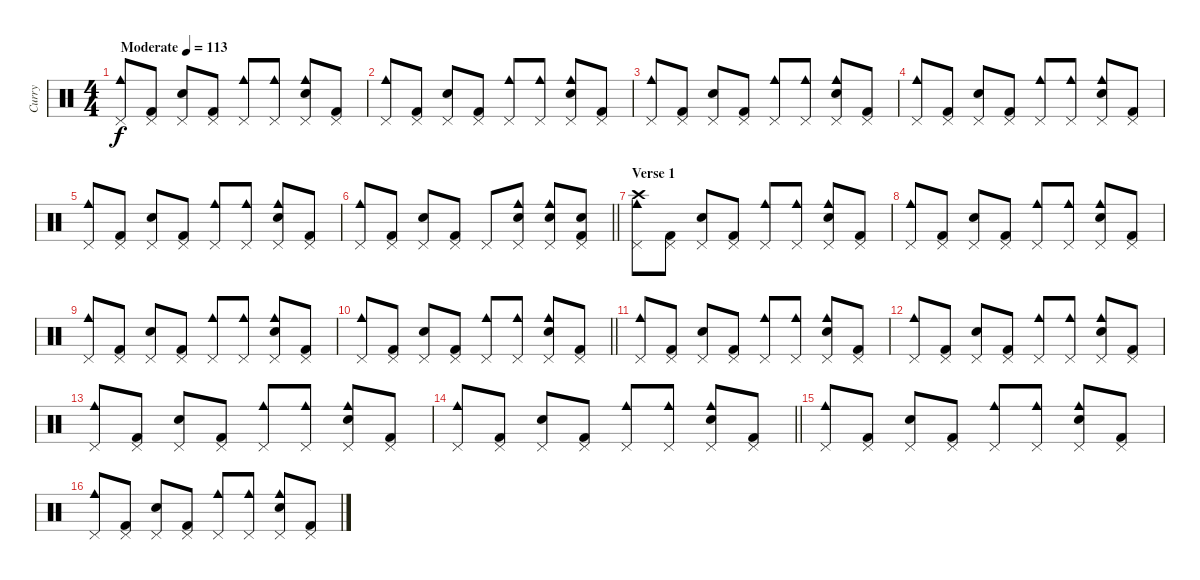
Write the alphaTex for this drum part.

\track ("Curry" "Curry") {instrument percussion}
\staff {score}
\articulation defaults
\ts (4 4)
\tempo (113 "Moderate")
\clef neutral
\ks c
("Pedal Hi-Hat (hit)" "Cowbell medium (hit)").8{dy f} ("Pedal Hi-Hat (hit)" "Kick (hit) 2").8 ("Pedal Hi-Hat (hit)" "Electric Snare (hit)").8 ("Pedal Hi-Hat (hit)" "Kick (hit) 2").8 ("Pedal Hi-Hat (hit)" "Cowbell medium (hit)").8 ("Pedal Hi-Hat (hit)" "Cowbell medium (hit)").8 ("Pedal Hi-Hat (hit)" "Cowbell medium (hit)" "Electric Snare (hit)").8 ("Pedal Hi-Hat (hit)" "Kick (hit) 2").8 |
("Pedal Hi-Hat (hit)" "Cowbell medium (hit)").8 ("Pedal Hi-Hat (hit)" "Kick (hit) 2").8 ("Pedal Hi-Hat (hit)" "Electric Snare (hit)").8 ("Pedal Hi-Hat (hit)" "Kick (hit) 2").8 ("Pedal Hi-Hat (hit)" "Cowbell medium (hit)").8 ("Pedal Hi-Hat (hit)" "Cowbell medium (hit)").8 ("Pedal Hi-Hat (hit)" "Cowbell medium (hit)" "Electric Snare (hit)").8 ("Pedal Hi-Hat (hit)" "Kick (hit) 2").8 |
("Pedal Hi-Hat (hit)" "Cowbell medium (hit)").8 ("Pedal Hi-Hat (hit)" "Kick (hit) 2").8 ("Pedal Hi-Hat (hit)" "Electric Snare (hit)").8 ("Pedal Hi-Hat (hit)" "Kick (hit) 2").8 ("Pedal Hi-Hat (hit)" "Cowbell medium (hit)").8 ("Pedal Hi-Hat (hit)" "Cowbell medium (hit)").8 ("Pedal Hi-Hat (hit)" "Cowbell medium (hit)" "Electric Snare (hit)").8 ("Pedal Hi-Hat (hit)" "Kick (hit) 2").8 |
("Pedal Hi-Hat (hit)" "Cowbell medium (hit)").8 ("Pedal Hi-Hat (hit)" "Kick (hit) 2").8 ("Pedal Hi-Hat (hit)" "Electric Snare (hit)").8 ("Pedal Hi-Hat (hit)" "Kick (hit) 2").8 ("Pedal Hi-Hat (hit)" "Cowbell medium (hit)").8 ("Pedal Hi-Hat (hit)" "Cowbell medium (hit)").8 ("Pedal Hi-Hat (hit)" "Cowbell medium (hit)" "Electric Snare (hit)").8 ("Pedal Hi-Hat (hit)" "Kick (hit) 2").8 |
("Pedal Hi-Hat (hit)" "Cowbell medium (hit)").8 ("Pedal Hi-Hat (hit)" "Kick (hit) 2").8 ("Pedal Hi-Hat (hit)" "Electric Snare (hit)").8 ("Pedal Hi-Hat (hit)" "Kick (hit) 2").8 ("Pedal Hi-Hat (hit)" "Cowbell medium (hit)").8 ("Pedal Hi-Hat (hit)" "Cowbell medium (hit)").8 ("Pedal Hi-Hat (hit)" "Cowbell medium (hit)" "Electric Snare (hit)").8 ("Pedal Hi-Hat (hit)" "Kick (hit) 2").8 |
\barLineRight lightlight
("Pedal Hi-Hat (hit)" "Cowbell medium (hit)").8 ("Pedal Hi-Hat (hit)" "Kick (hit) 2").8 ("Pedal Hi-Hat (hit)" "Electric Snare (hit)").8 ("Pedal Hi-Hat (hit)" "Kick (hit) 2").8 "Pedal Hi-Hat (hit)".8 ("Pedal Hi-Hat (hit)" "Cowbell medium (hit)" "Electric Snare (hit)").8 ("Pedal Hi-Hat (hit)" "Cowbell medium (hit)" "Electric Snare (hit)").8 ("Pedal Hi-Hat (hit)" "Kick (hit) 2" "Electric Snare (hit)").8 |
\section ("" "Verse 1")
("Pedal Hi-Hat (hit)" "Cowbell medium (hit)" "Crash high (hit)").8 ("Pedal Hi-Hat (hit)" "Kick (hit) 2").8 ("Pedal Hi-Hat (hit)" "Electric Snare (hit)").8 ("Pedal Hi-Hat (hit)" "Kick (hit) 2").8 ("Pedal Hi-Hat (hit)" "Cowbell medium (hit)").8 ("Pedal Hi-Hat (hit)" "Cowbell medium (hit)").8 ("Pedal Hi-Hat (hit)" "Cowbell medium (hit)" "Electric Snare (hit)").8 ("Pedal Hi-Hat (hit)" "Kick (hit) 2").8 |
("Pedal Hi-Hat (hit)" "Cowbell medium (hit)").8 ("Pedal Hi-Hat (hit)" "Kick (hit) 2").8 ("Pedal Hi-Hat (hit)" "Electric Snare (hit)").8 ("Pedal Hi-Hat (hit)" "Kick (hit) 2").8 ("Pedal Hi-Hat (hit)" "Cowbell medium (hit)").8 ("Pedal Hi-Hat (hit)" "Cowbell medium (hit)").8 ("Pedal Hi-Hat (hit)" "Cowbell medium (hit)" "Electric Snare (hit)").8 ("Pedal Hi-Hat (hit)" "Kick (hit) 2").8 |
("Pedal Hi-Hat (hit)" "Cowbell medium (hit)").8 ("Pedal Hi-Hat (hit)" "Kick (hit) 2").8 ("Pedal Hi-Hat (hit)" "Electric Snare (hit)").8 ("Pedal Hi-Hat (hit)" "Kick (hit) 2").8 ("Pedal Hi-Hat (hit)" "Cowbell medium (hit)").8 ("Pedal Hi-Hat (hit)" "Cowbell medium (hit)").8 ("Pedal Hi-Hat (hit)" "Cowbell medium (hit)" "Electric Snare (hit)").8 ("Pedal Hi-Hat (hit)" "Kick (hit) 2").8 |
\barLineRight lightlight
("Pedal Hi-Hat (hit)" "Cowbell medium (hit)").8 ("Pedal Hi-Hat (hit)" "Kick (hit) 2").8 ("Pedal Hi-Hat (hit)" "Electric Snare (hit)").8 ("Pedal Hi-Hat (hit)" "Kick (hit) 2").8 ("Pedal Hi-Hat (hit)" "Cowbell medium (hit)").8 ("Pedal Hi-Hat (hit)" "Cowbell medium (hit)").8 ("Pedal Hi-Hat (hit)" "Cowbell medium (hit)" "Electric Snare (hit)").8 ("Pedal Hi-Hat (hit)" "Kick (hit) 2").8 |
("Pedal Hi-Hat (hit)" "Cowbell medium (hit)").8 ("Pedal Hi-Hat (hit)" "Kick (hit) 2").8 ("Pedal Hi-Hat (hit)" "Electric Snare (hit)").8 ("Pedal Hi-Hat (hit)" "Kick (hit) 2").8 ("Pedal Hi-Hat (hit)" "Cowbell medium (hit)").8 ("Pedal Hi-Hat (hit)" "Cowbell medium (hit)").8 ("Pedal Hi-Hat (hit)" "Cowbell medium (hit)" "Electric Snare (hit)").8 ("Pedal Hi-Hat (hit)" "Kick (hit) 2").8 |
("Pedal Hi-Hat (hit)" "Cowbell medium (hit)").8 ("Pedal Hi-Hat (hit)" "Kick (hit) 2").8 ("Pedal Hi-Hat (hit)" "Electric Snare (hit)").8 ("Pedal Hi-Hat (hit)" "Kick (hit) 2").8 ("Pedal Hi-Hat (hit)" "Cowbell medium (hit)").8 ("Pedal Hi-Hat (hit)" "Cowbell medium (hit)").8 ("Pedal Hi-Hat (hit)" "Cowbell medium (hit)" "Electric Snare (hit)").8 ("Pedal Hi-Hat (hit)" "Kick (hit) 2").8 |
("Pedal Hi-Hat (hit)" "Cowbell medium (hit)").8 ("Pedal Hi-Hat (hit)" "Kick (hit) 2").8 ("Pedal Hi-Hat (hit)" "Electric Snare (hit)").8 ("Pedal Hi-Hat (hit)" "Kick (hit) 2").8 ("Pedal Hi-Hat (hit)" "Cowbell medium (hit)").8 ("Pedal Hi-Hat (hit)" "Cowbell medium (hit)").8 ("Pedal Hi-Hat (hit)" "Cowbell medium (hit)" "Electric Snare (hit)").8 ("Pedal Hi-Hat (hit)" "Kick (hit) 2").8 |
\barLineRight lightlight
("Pedal Hi-Hat (hit)" "Cowbell medium (hit)").8 ("Pedal Hi-Hat (hit)" "Kick (hit) 2").8 ("Pedal Hi-Hat (hit)" "Electric Snare (hit)").8 ("Pedal Hi-Hat (hit)" "Kick (hit) 2").8 ("Pedal Hi-Hat (hit)" "Cowbell medium (hit)").8 ("Pedal Hi-Hat (hit)" "Cowbell medium (hit)").8 ("Pedal Hi-Hat (hit)" "Cowbell medium (hit)" "Electric Snare (hit)").8 ("Pedal Hi-Hat (hit)" "Kick (hit) 2").8 |
("Pedal Hi-Hat (hit)" "Cowbell medium (hit)").8 ("Pedal Hi-Hat (hit)" "Kick (hit) 2").8 ("Pedal Hi-Hat (hit)" "Electric Snare (hit)").8 ("Pedal Hi-Hat (hit)" "Kick (hit) 2").8 ("Pedal Hi-Hat (hit)" "Cowbell medium (hit)").8 ("Pedal Hi-Hat (hit)" "Cowbell medium (hit)").8 ("Pedal Hi-Hat (hit)" "Cowbell medium (hit)" "Electric Snare (hit)").8 ("Pedal Hi-Hat (hit)" "Kick (hit) 2").8 |
("Pedal Hi-Hat (hit)" "Cowbell medium (hit)").8 ("Pedal Hi-Hat (hit)" "Kick (hit) 2").8 ("Pedal Hi-Hat (hit)" "Electric Snare (hit)").8 ("Pedal Hi-Hat (hit)" "Kick (hit) 2").8 ("Pedal Hi-Hat (hit)" "Cowbell medium (hit)").8 ("Pedal Hi-Hat (hit)" "Cowbell medium (hit)").8 ("Pedal Hi-Hat (hit)" "Cowbell medium (hit)" "Electric Snare (hit)").8 ("Pedal Hi-Hat (hit)" "Kick (hit) 2").8
